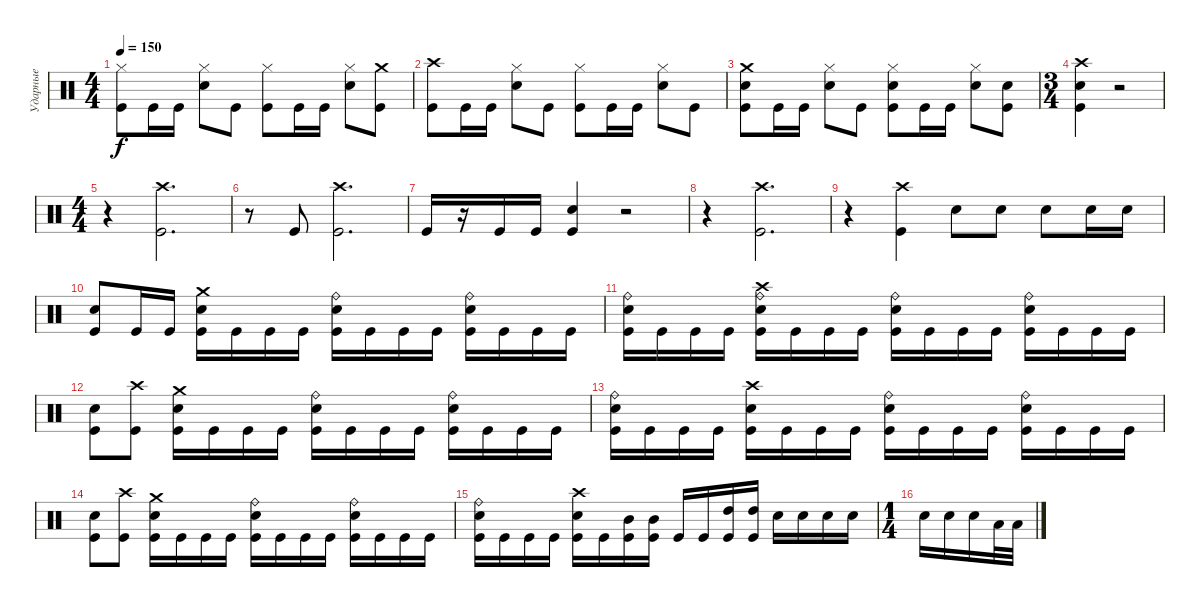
\track ("Ударные" "Ударные") {instrument percussion}
\staff {score}
\articulation defaults
\ts (4 4)
\tempo 150
\clef neutral
\ks c
("Hi-Hat (closed)" "Kick (hit)").8{dy f} "Kick (hit)".16 "Kick (hit)".16 ("Hi-Hat (closed)" "Electric Snare (hit)").8 "Kick (hit)".8 ("Hi-Hat (closed)" "Kick (hit)").8 "Kick (hit)".16 "Kick (hit)".16 ("Hi-Hat (closed)" "Electric Snare (hit)").8 ("Crash medium (hit)" "Kick (hit)").8 |
("Crash high (hit)" "Kick (hit)").8 "Kick (hit)".16 "Kick (hit)".16 ("Hi-Hat (closed)" "Electric Snare (hit)").8 "Kick (hit)".8 ("Hi-Hat (closed)" "Kick (hit)").8 "Kick (hit)".16 "Kick (hit)".16 ("Hi-Hat (closed)" "Electric Snare (hit)").8 "Kick (hit)".8 |
("Crash medium (hit)" "Electric Snare (hit)" "Kick (hit)").8 "Kick (hit)".16 "Kick (hit)".16 ("Hi-Hat (closed)" "Electric Snare (hit)").8 "Kick (hit)".8 ("Hi-Hat (closed)" "Electric Snare (hit)" "Kick (hit)").8 "Kick (hit)".16 "Kick (hit)".16 ("Hi-Hat (closed)" "Electric Snare (hit)").8 ("Electric Snare (hit)" "Kick (hit)").8 |
\ts (3 4)
("Crash high (hit)" "Electric Snare (hit)" "Kick (hit)").4 r.2 |
\ts (4 4)
r.4 ("Crash high (hit)" "Kick (hit)").2{d} |
r.8 "Kick (hit)".8 ("Crash high (hit)" "Kick (hit)").2{d} |
"Kick (hit)".16 r.16 "Kick (hit)".16 "Kick (hit)".16 ("Electric Snare (hit)" "Kick (hit)").4 r.2 |
r.4 ("Crash high (hit)" "Kick (hit)").2{d} |
r.4 ("Crash high (hit)" "Kick (hit)").4 "Electric Snare (hit)".8 "Electric Snare (hit)".8 "Electric Snare (hit)".8 "Electric Snare (hit)".16 "Electric Snare (hit)".16 |
("Electric Snare (hit)" "Kick (hit)").8 "Kick (hit)".16 "Kick (hit)".16 ("Crash medium (hit)" "Electric Snare (hit)" "Kick (hit)").16 "Kick (hit)".16 "Kick (hit)".16 "Kick (hit)".16 ("Ride (bell)" "Electric Snare (hit)" "Kick (hit)").16 "Kick (hit)".16 "Kick (hit)".16 "Kick (hit)".16 ("Ride (bell)" "Electric Snare (hit)" "Kick (hit)").16 "Kick (hit)".16 "Kick (hit)".16 "Kick (hit)".16 |
("Ride (bell)" "Electric Snare (hit)" "Kick (hit)").16 "Kick (hit)".16 "Kick (hit)".16 "Kick (hit)".16 ("Crash high (hit)" "Ride (bell)" "Electric Snare (hit)" "Kick (hit)").16 "Kick (hit)".16 "Kick (hit)".16 "Kick (hit)".16 ("Ride (bell)" "Electric Snare (hit)" "Kick (hit)").16 "Kick (hit)".16 "Kick (hit)".16 "Kick (hit)".16 ("Ride (bell)" "Electric Snare (hit)" "Kick (hit)").16 "Kick (hit)".16 "Kick (hit)".16 "Kick (hit)".16 |
("Electric Snare (hit)" "Kick (hit)").8 ("Crash high (hit)" "Kick (hit)").8 ("Crash medium (hit)" "Electric Snare (hit)" "Kick (hit)").16 "Kick (hit)".16 "Kick (hit)".16 "Kick (hit)".16 ("Ride (bell)" "Electric Snare (hit)" "Kick (hit)").16 "Kick (hit)".16 "Kick (hit)".16 "Kick (hit)".16 ("Ride (bell)" "Electric Snare (hit)" "Kick (hit)").16 "Kick (hit)".16 "Kick (hit)".16 "Kick (hit)".16 |
("Ride (bell)" "Electric Snare (hit)" "Kick (hit)").16 "Kick (hit)".16 "Kick (hit)".16 "Kick (hit)".16 ("Crash high (hit)" "Electric Snare (hit)" "Kick (hit)").16 "Kick (hit)".16 "Kick (hit)".16 "Kick (hit)".16 ("Ride (bell)" "Electric Snare (hit)" "Kick (hit)").16 "Kick (hit)".16 "Kick (hit)".16 "Kick (hit)".16 ("Ride (bell)" "Electric Snare (hit)" "Kick (hit)").16 "Kick (hit)".16 "Kick (hit)".16 "Kick (hit)".16 |
("Electric Snare (hit)" "Kick (hit)").8 ("Crash high (hit)" "Kick (hit)").8 ("Crash medium (hit)" "Electric Snare (hit)" "Kick (hit)").16 "Kick (hit)".16 "Kick (hit)".16 "Kick (hit)".16 ("Ride (bell)" "Electric Snare (hit)" "Kick (hit)").16 "Kick (hit)".16 "Kick (hit)".16 "Kick (hit)".16 ("Ride (bell)" "Electric Snare (hit)" "Kick (hit)").16 "Kick (hit)".16 "Kick (hit)".16 "Kick (hit)".16 |
("Ride (bell)" "Electric Snare (hit)" "Kick (hit)").16 "Kick (hit)".16 "Kick (hit)".16 "Kick (hit)".16 ("Crash high (hit)" "Electric Snare (hit)" "Kick (hit)").16 "Kick (hit)".16 ("Mid Tom (hit)" "Kick (hit)").16 ("Mid Tom (hit)" "Kick (hit)").16 "Kick (hit)".16 "Kick (hit)".16 ("High Tom (hit)" "Kick (hit)").16 ("High Tom (hit)" "Kick (hit)").16 "Electric Snare (hit)".16 "Electric Snare (hit)".16 "Electric Snare (hit)".16 "Electric Snare (hit)".16 |
\ts (1 4)
"Electric Snare (hit)".16 "Electric Snare (hit)".16 "Electric Snare (hit)".16 "Low Tom (hit)".32 "Low Tom (hit)".32
